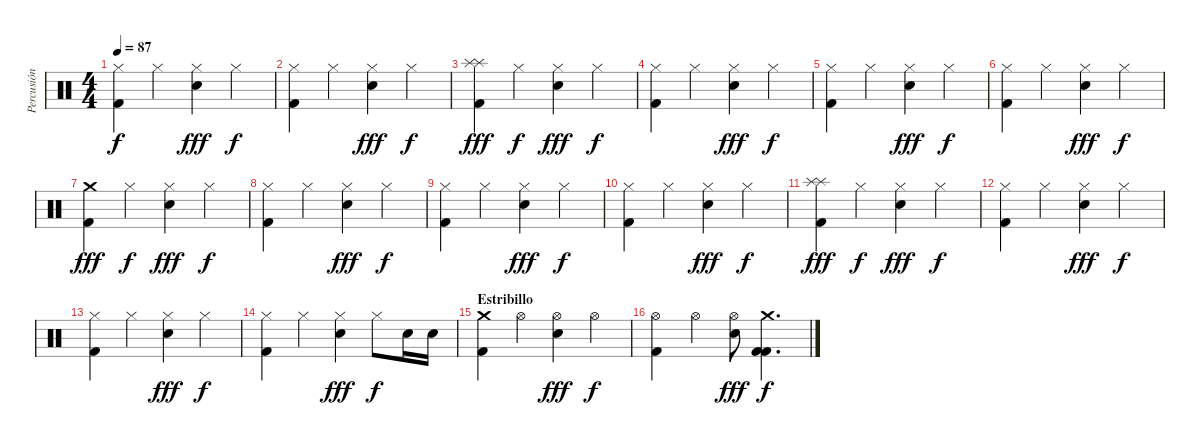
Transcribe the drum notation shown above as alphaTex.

\track ("Percusión" "Percusión") {instrument percussion}
\staff {score}
\articulation defaults
\ts (4 4)
\tempo 87
\clef neutral
\ks c
("Hi-Hat (closed)" "Kick (hit) 2").4{dy f} "Hi-Hat (closed)".4 ("Hi-Hat (closed)" "Snare (hit) 2").4{dy fff} "Hi-Hat (closed)".4{dy f} |
("Hi-Hat (closed)" "Kick (hit) 2").4 "Hi-Hat (closed)".4 ("Hi-Hat (closed)" "Snare (hit) 2").4{dy fff} "Hi-Hat (closed)".4{dy f} |
("Splash (hit)" "Splash (hit)" "Kick (hit) 2").4{dy fff} "Hi-Hat (closed)".4{dy f} ("Hi-Hat (closed)" "Snare (hit) 2").4{dy fff} "Hi-Hat (closed)".4{dy f} |
("Hi-Hat (closed)" "Kick (hit) 2").4 "Hi-Hat (closed)".4 ("Hi-Hat (closed)" "Snare (hit) 2").4{dy fff} "Hi-Hat (closed)".4{dy f} |
("Hi-Hat (closed)" "Kick (hit) 2").4 "Hi-Hat (closed)".4 ("Hi-Hat (closed)" "Snare (hit) 2").4{dy fff} "Hi-Hat (closed)".4{dy f} |
("Hi-Hat (closed)" "Kick (hit) 2").4 "Hi-Hat (closed)".4 ("Hi-Hat (closed)" "Snare (hit) 2").4{dy fff} "Hi-Hat (closed)".4{dy f} |
("Crash medium (hit)" "Kick (hit) 2").4{dy fff} "Hi-Hat (closed)".4{dy f} ("Hi-Hat (closed)" "Snare (hit) 2").4{dy fff} "Hi-Hat (closed)".4{dy f} |
("Hi-Hat (closed)" "Kick (hit) 2").4 "Hi-Hat (closed)".4 ("Hi-Hat (closed)" "Snare (hit) 2").4{dy fff} "Hi-Hat (closed)".4{dy f} |
("Hi-Hat (closed)" "Kick (hit) 2").4 "Hi-Hat (closed)".4 ("Hi-Hat (closed)" "Snare (hit) 2").4{dy fff} "Hi-Hat (closed)".4{dy f} |
("Hi-Hat (closed)" "Kick (hit) 2").4 "Hi-Hat (closed)".4 ("Hi-Hat (closed)" "Snare (hit) 2").4{dy fff} "Hi-Hat (closed)".4{dy f} |
("Splash (hit)" "Splash (hit)" "Kick (hit) 2").4{dy fff} "Hi-Hat (closed)".4{dy f} ("Hi-Hat (closed)" "Snare (hit) 2").4{dy fff} "Hi-Hat (closed)".4{dy f} |
("Hi-Hat (closed)" "Kick (hit) 2").4 "Hi-Hat (closed)".4 ("Hi-Hat (closed)" "Snare (hit) 2").4{dy fff} "Hi-Hat (closed)".4{dy f} |
("Hi-Hat (closed)" "Kick (hit) 2").4 "Hi-Hat (closed)".4 ("Hi-Hat (closed)" "Snare (hit) 2").4{dy fff} "Hi-Hat (closed)".4{dy f} |
("Hi-Hat (closed)" "Kick (hit) 2").4 "Hi-Hat (closed)".4 ("Hi-Hat (closed)" "Snare (hit) 2").4{dy fff} "Hi-Hat (closed)".8{dy f} "Snare (hit) 2".16 "Snare (hit) 2".16 |
\section ("" "Estribillo")
("Crash medium (hit)" "Kick (hit) 2").4 "Hi-Hat (open)".4 ("Hi-Hat (open)" "Snare (hit) 2").4{dy fff} "Hi-Hat (open)".4{dy f} |
("Hi-Hat (open)" "Kick (hit) 2").4 "Hi-Hat (open)".4 ("Hi-Hat (open)" "Snare (hit) 2").8{dy fff} ("Crash medium (hit)" "Kick (hit) 2" "Kick (hit) 2").4{d dy f}
